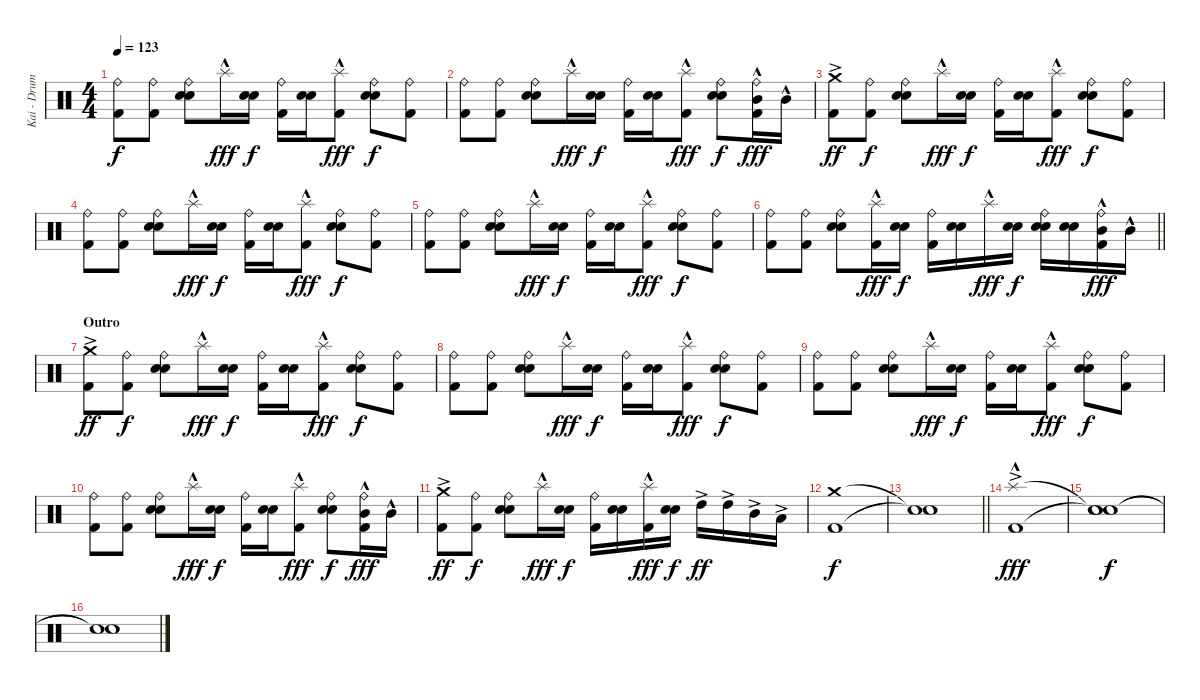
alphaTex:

\track ("Kai - Drums" "Kai - Drum") {instrument percussion}
\staff {score}
\articulation defaults
\ts (4 4)
\tempo 123
\clef neutral
\ks c
("Ride (bell)" "Kick (hit) 2").8{dy f} ("Ride (bell)" "Kick (hit) 2").8 ("Ride (bell)" "Electric Snare (hit)" "Snare (hit) 2").8 "Splash (hit)"{hac}.16{dy fff} ("Electric Snare (hit)" "Snare (hit) 2").16{dy f} ("Ride (bell)" "Kick (hit) 2").16 ("Electric Snare (hit)" "Snare (hit) 2").16 ("Splash (hit)"{hac} "Kick (hit) 2").8{dy fff} ("Ride (bell)" "Electric Snare (hit)" "Snare (hit) 2").8{dy f} ("Ride (bell)" "Kick (hit) 2").8 |
("Ride (bell)" "Kick (hit) 2").8 ("Ride (bell)" "Kick (hit) 2").8 ("Ride (bell)" "Electric Snare (hit)" "Snare (hit) 2").8 "Splash (hit)"{hac}.16{dy fff} ("Electric Snare (hit)" "Snare (hit) 2").16{dy f} ("Ride (bell)" "Kick (hit) 2").16 ("Electric Snare (hit)" "Snare (hit) 2").16 ("Splash (hit)"{hac} "Kick (hit) 2").8{dy fff} ("Ride (bell)" "Electric Snare (hit)" "Snare (hit) 2").8{dy f} ("Ride (bell)" "Mid Tom (hit)"{hac} "Kick (hit) 2").16{dy fff} "Mid Tom (hit)"{hac}.16 |
("Crash medium (hit)"{ac} "Kick (hit) 2").8{dy ff} ("Ride (bell)" "Kick (hit) 2").8{dy f} ("Ride (bell)" "Electric Snare (hit)" "Snare (hit) 2").8 "Splash (hit)"{hac}.16{dy fff} ("Electric Snare (hit)" "Snare (hit) 2").16{dy f} ("Ride (bell)" "Kick (hit) 2").16 ("Electric Snare (hit)" "Snare (hit) 2").16 ("Splash (hit)"{hac} "Kick (hit) 2").8{dy fff} ("Ride (bell)" "Electric Snare (hit)" "Snare (hit) 2").8{dy f} ("Ride (bell)" "Kick (hit) 2").8 |
("Ride (bell)" "Kick (hit) 2").8 ("Ride (bell)" "Kick (hit) 2").8 ("Ride (bell)" "Electric Snare (hit)" "Snare (hit) 2").8 "Splash (hit)"{hac}.16{dy fff} ("Electric Snare (hit)" "Snare (hit) 2").16{dy f} ("Ride (bell)" "Kick (hit) 2").16 ("Electric Snare (hit)" "Snare (hit) 2").16 ("Splash (hit)"{hac} "Kick (hit) 2").8{dy fff} ("Ride (bell)" "Electric Snare (hit)" "Snare (hit) 2").8{dy f} ("Ride (bell)" "Kick (hit) 2").8 |
("Ride (bell)" "Kick (hit) 2").8 ("Ride (bell)" "Kick (hit) 2").8 ("Ride (bell)" "Electric Snare (hit)" "Snare (hit) 2").8 "Splash (hit)"{hac}.16{dy fff} ("Electric Snare (hit)" "Snare (hit) 2").16{dy f} ("Ride (bell)" "Kick (hit) 2").16 ("Electric Snare (hit)" "Snare (hit) 2").16 ("Splash (hit)"{hac} "Kick (hit) 2").8{dy fff} ("Ride (bell)" "Electric Snare (hit)" "Snare (hit) 2").8{dy f} ("Ride (bell)" "Kick (hit) 2").8 |
\barLineRight lightlight
("Ride (bell)" "Kick (hit) 2").8 ("Ride (bell)" "Kick (hit) 2").8 ("Ride (bell)" "Electric Snare (hit)" "Snare (hit) 2").8 ("Splash (hit)"{hac} "Kick (hit) 2").16{dy fff} ("Electric Snare (hit)" "Snare (hit) 2").16{dy f} ("Ride (bell)" "Kick (hit) 2").16 ("Electric Snare (hit)" "Snare (hit) 2").16 "Splash (hit)"{hac}.16{dy fff} ("Electric Snare (hit)" "Snare (hit) 2").16{dy f} ("Ride (bell)" "Electric Snare (hit)" "Snare (hit) 2").16 ("Electric Snare (hit)" "Snare (hit) 2").16 ("Ride (bell)" "Mid Tom (hit)"{hac} "Kick (hit) 2").16{dy fff} "Mid Tom (hit)"{hac}.16 |
\section ("" "Outro")
("Crash medium (hit)"{ac} "Kick (hit) 2").8{dy ff} ("Ride (bell)" "Kick (hit) 2").8{dy f} ("Ride (bell)" "Electric Snare (hit)" "Snare (hit) 2").8 "Splash (hit)"{hac}.16{dy fff} ("Electric Snare (hit)" "Snare (hit) 2").16{dy f} ("Ride (bell)" "Kick (hit) 2").16 ("Electric Snare (hit)" "Snare (hit) 2").16 ("Splash (hit)"{hac} "Kick (hit) 2").8{dy fff} ("Ride (bell)" "Electric Snare (hit)" "Snare (hit) 2").8{dy f} ("Ride (bell)" "Kick (hit) 2").8 |
("Ride (bell)" "Kick (hit) 2").8 ("Ride (bell)" "Kick (hit) 2").8 ("Ride (bell)" "Electric Snare (hit)" "Snare (hit) 2").8 "Splash (hit)"{hac}.16{dy fff} ("Electric Snare (hit)" "Snare (hit) 2").16{dy f} ("Ride (bell)" "Kick (hit) 2").16 ("Electric Snare (hit)" "Snare (hit) 2").16 ("Splash (hit)"{hac} "Kick (hit) 2").8{dy fff} ("Ride (bell)" "Electric Snare (hit)" "Snare (hit) 2").8{dy f} ("Ride (bell)" "Kick (hit) 2").8 |
("Ride (bell)" "Kick (hit) 2").8 ("Ride (bell)" "Kick (hit) 2").8 ("Ride (bell)" "Electric Snare (hit)" "Snare (hit) 2").8 "Splash (hit)"{hac}.16{dy fff} ("Electric Snare (hit)" "Snare (hit) 2").16{dy f} ("Ride (bell)" "Kick (hit) 2").16 ("Electric Snare (hit)" "Snare (hit) 2").16 ("Splash (hit)"{hac} "Kick (hit) 2").8{dy fff} ("Ride (bell)" "Electric Snare (hit)" "Snare (hit) 2").8{dy f} ("Ride (bell)" "Kick (hit) 2").8 |
("Ride (bell)" "Kick (hit) 2").8 ("Ride (bell)" "Kick (hit) 2").8 ("Ride (bell)" "Electric Snare (hit)" "Snare (hit) 2").8 "Splash (hit)"{hac}.16{dy fff} ("Electric Snare (hit)" "Snare (hit) 2").16{dy f} ("Ride (bell)" "Kick (hit) 2").16 ("Electric Snare (hit)" "Snare (hit) 2").16 ("Splash (hit)"{hac} "Kick (hit) 2").8{dy fff} ("Ride (bell)" "Electric Snare (hit)" "Snare (hit) 2").8{dy f} ("Ride (bell)" "Mid Tom (hit)"{hac} "Kick (hit) 2").16{dy fff} "Mid Tom (hit)"{hac}.16 |
("Crash medium (hit)"{ac} "Kick (hit) 2").8{dy ff} ("Ride (bell)" "Kick (hit) 2").8{dy f} ("Ride (bell)" "Electric Snare (hit)" "Snare (hit) 2").8 "Splash (hit)"{hac}.16{dy fff} ("Electric Snare (hit)" "Snare (hit) 2").16{dy f} ("Ride (bell)" "Kick (hit) 2").16 ("Electric Snare (hit)" "Snare (hit) 2").16 ("Splash (hit)"{hac} "Kick (hit) 2").16{dy fff} ("Electric Snare (hit)" "Snare (hit) 2").16{dy f} "High Tom (hit)"{ac}.16{dy ff} "High Tom (hit)"{ac}.16 "Mid Tom (hit)"{ac}.16 "Low Tom (hit)"{ac}.16 |
("Crash medium (hit)" "Kick (hit) 2").1{dy f} |
\barLineRight lightlight
("Snare (hit)"{t} "Snare (hit)"{t}).1 |
\section ("" "")
("Splash (hit)"{ac} "Kick (hit) 2"{hac}).1{dy fff} |
("Snare (hit)"{t} "Snare (hit)"{t} "Snare (hit)").1{dy f} |
("Snare (hit)"{t} "Snare (hit)"{t}).1
